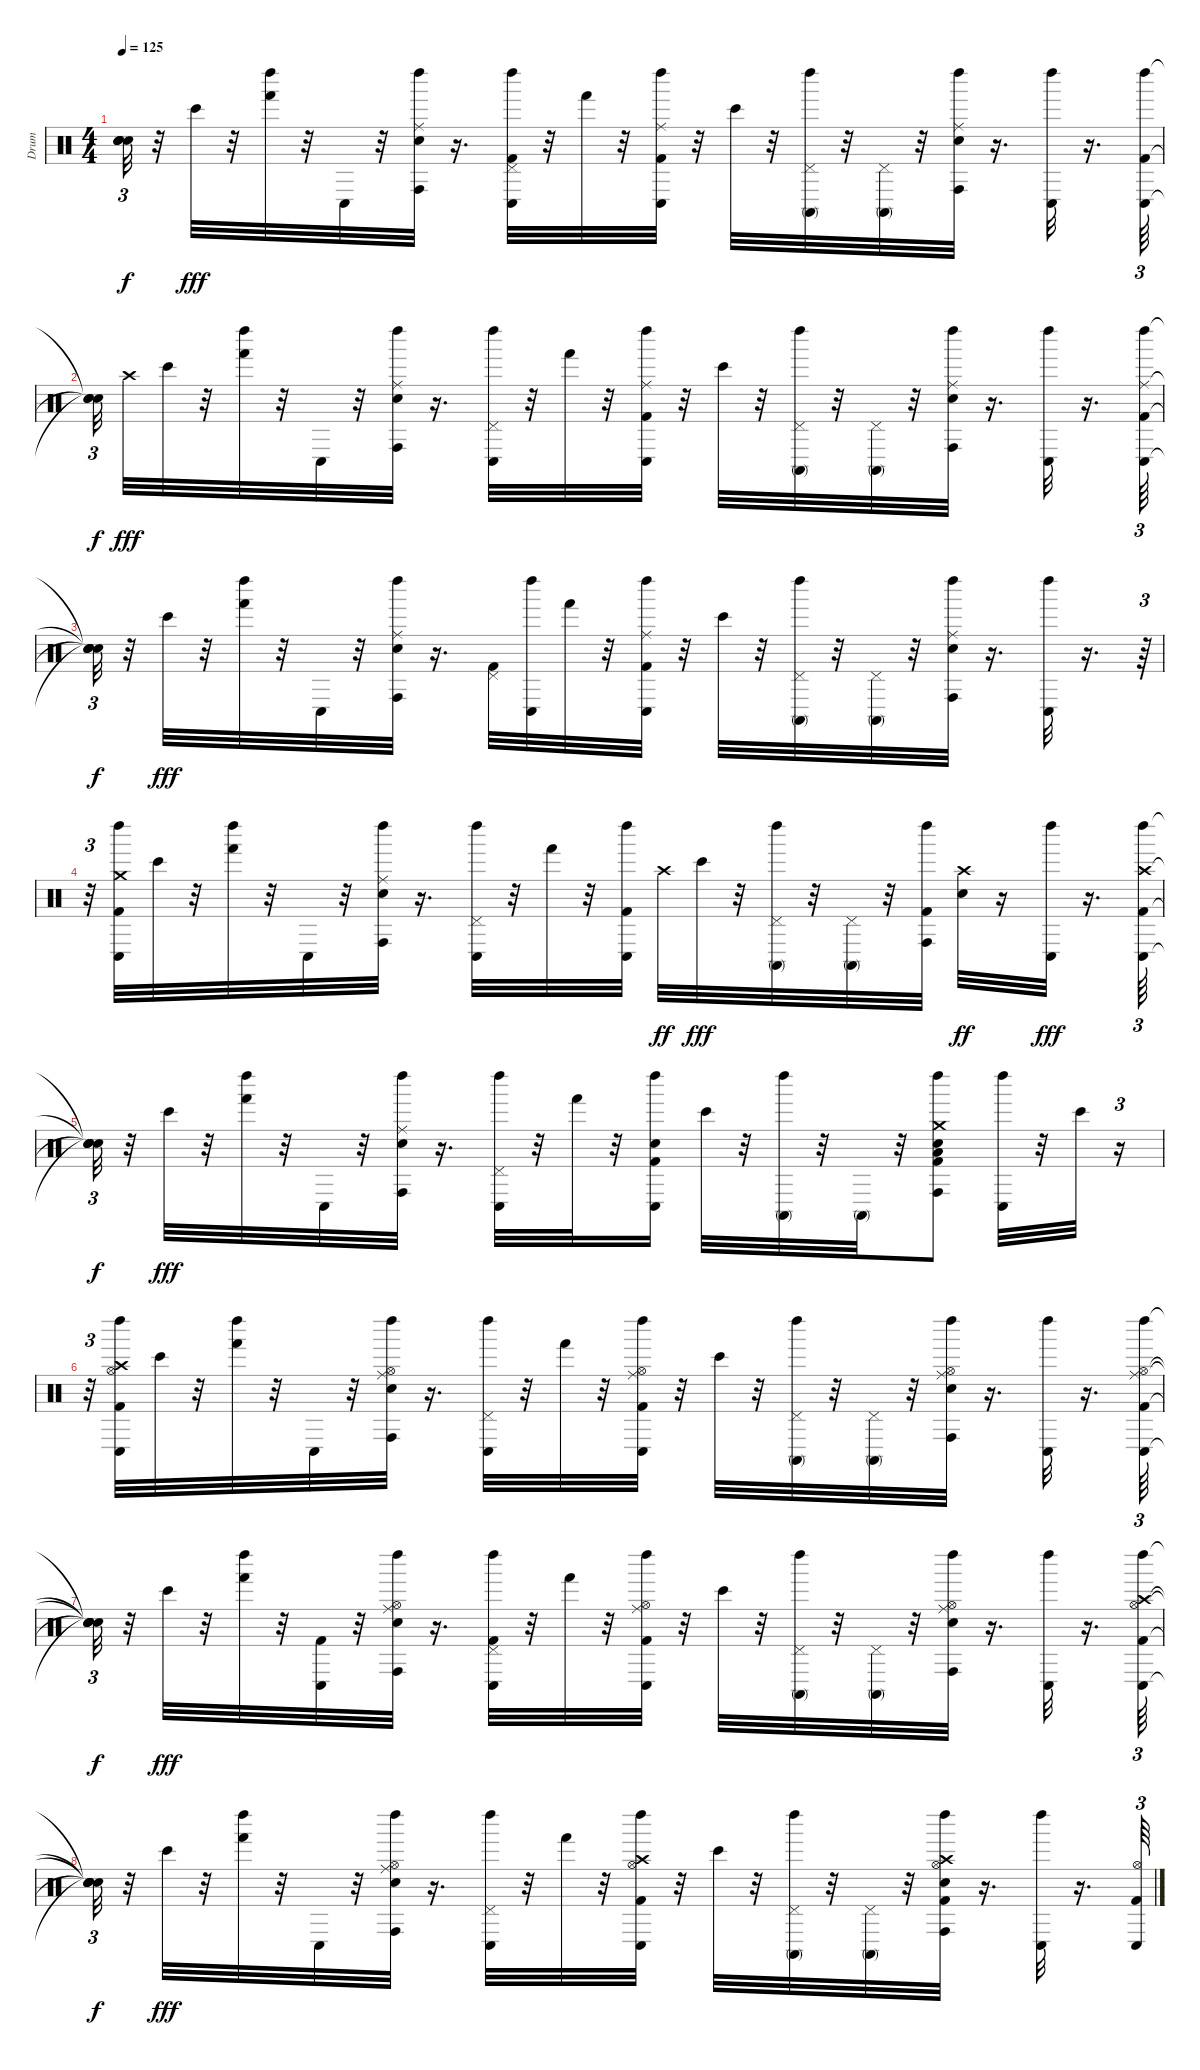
\track ("Drum" "Drum") {instrument percussion}
\staff {score}
\articulation defaults
\ts (4 4)
\tempo 125
\clef neutral
\ks c
("Snare (hit)"{t} "Snare (hit)"{t} "Snare (hit)"{t} "Snare (hit)"{t}).32{tu (3 2) dy f} r.32 "Bongo High (hit)".32{dy fff} r.32 ("Hand (hit)" "Left Maraca (hit)").32 r.32 "Conga low (hit)".32 r.32 ("Conga high (hit)" "Left Maraca (hit)" "Electric Snare (hit)" "Ride (middle)").32 r.16{d} ("Kick (hit) 2" "Pedal Hi-Hat (hit)" "Conga low (hit)" "Left Maraca (hit)").32 r.32 "Hand (hit)".32 r.32 ("Kick (hit) 2" "Conga low (hit)" "Left Maraca (hit)" "Ride (middle)").32 r.32 "Bongo High (hit)".32 r.32 ("Pedal Hi-Hat (hit)" "Conga high (mute)" "Left Maraca (hit)").32 r.32 ("Pedal Hi-Hat (hit)" "Conga high (mute)").32 r.32 ("Conga high (hit)" "Left Maraca (hit)" "Electric Snare (hit)" "Ride (middle)").32 r.16{d} ("Conga low (hit)" "Left Maraca (hit)").32 r.16{d} ("Kick (hit) 2" "Conga low (hit)" "Left Maraca (hit)").64{tu (3 2)} |
("Snare (hit)"{t} "Snare (hit)"{t} "Snare (hit)"{t}).32{tu (3 2) dy f beam splitsecondary} "Crash high (hit)".32{dy fff} "Bongo High (hit)".32 r.32 ("Hand (hit)" "Left Maraca (hit)").32 r.32 "Conga low (hit)".32 r.32 ("Conga high (hit)" "Left Maraca (hit)" "Electric Snare (hit)" "Ride (middle)").32 r.16{d} ("Pedal Hi-Hat (hit)" "Conga low (hit)" "Left Maraca (hit)").32 r.32 "Hand (hit)".32 r.32 ("Kick (hit) 2" "Conga low (hit)" "Left Maraca (hit)" "Ride (middle)").32 r.32 "Bongo High (hit)".32 r.32 ("Pedal Hi-Hat (hit)" "Conga high (mute)" "Left Maraca (hit)").32 r.32 ("Pedal Hi-Hat (hit)" "Conga high (mute)").32 r.32 ("Conga high (hit)" "Left Maraca (hit)" "Electric Snare (hit)" "Ride (middle)").32 r.16{d} ("Conga low (hit)" "Left Maraca (hit)").32 r.16{d} ("Kick (hit) 2" "Conga low (hit)" "Left Maraca (hit)" "Ride (middle)").64{tu (3 2)} |
("Snare (hit)"{t} "Snare (hit)"{t} "Snare (hit)"{t} "Snare (hit)"{t}).32{tu (3 2) dy f} r.32 "Bongo High (hit)".32{dy fff} r.32 ("Hand (hit)" "Left Maraca (hit)").32 r.32 "Conga low (hit)".32 r.32 ("Conga high (hit)" "Left Maraca (hit)" "Electric Snare (hit)" "Ride (middle)").32 r.16{d} ("Kick (hit) 2" "Pedal Hi-Hat (hit)").32 ("Conga low (hit)" "Left Maraca (hit)").32 "Hand (hit)".32 r.32 ("Kick (hit) 2" "Conga low (hit)" "Left Maraca (hit)" "Ride (middle)").32 r.32 "Bongo High (hit)".32 r.32 ("Pedal Hi-Hat (hit)" "Conga high (mute)" "Left Maraca (hit)").32 r.32 ("Pedal Hi-Hat (hit)" "Conga high (mute)").32 r.32 ("Conga high (hit)" "Left Maraca (hit)" "Electric Snare (hit)" "Ride (middle)").32 r.16{d} ("Conga low (hit)" "Left Maraca (hit)").32 r.16{d} r.64{tu (3 2)} |
r.32{tu (3 2)} ("Kick (hit) 2" "Conga low (hit)" "Left Maraca (hit)" "Crash medium (hit)").32 "Bongo High (hit)".32 r.32 ("Hand (hit)" "Left Maraca (hit)").32 r.32 "Conga low (hit)".32 r.32 ("Conga high (hit)" "Left Maraca (hit)" "Electric Snare (hit)" "Ride (middle)").32 r.16{d} ("Pedal Hi-Hat (hit)" "Conga low (hit)" "Left Maraca (hit)").32 r.32 "Hand (hit)".32 r.32 ("Kick (hit) 2" "Conga low (hit)" "Left Maraca (hit)").32 "Crash high (hit)".32{dy ff} "Bongo High (hit)".32{dy fff} r.32 ("Pedal Hi-Hat (hit)" "Conga high (mute)" "Left Maraca (hit)").32 r.32 ("Pedal Hi-Hat (hit)" "Conga high (mute)").32 r.32 ("Kick (hit) 2" "Conga high (hit)" "Left Maraca (hit)").32 ("Electric Snare (hit)" "Crash high (hit)").32{dy ff} r.16 ("Conga low (hit)" "Left Maraca (hit)").32{dy fff} r.16{d} ("Kick (hit) 2" "Conga low (hit)" "Left Maraca (hit)" "Crash high (hit)").64{tu (3 2)} |
("Snare (hit)"{t} "Snare (hit)"{t} "Snare (hit)"{t} "Snare (hit)"{t}).32{tu (3 2) dy f} r.32 "Bongo High (hit)".32{dy fff} r.32 ("Hand (hit)" "Left Maraca (hit)").32 r.32 "Conga low (hit)".32 r.32 ("Conga high (hit)" "Left Maraca (hit)" "Electric Snare (hit)" "Ride (middle)").32 r.16{d} ("Pedal Hi-Hat (hit)" "Conga low (hit)" "Left Maraca (hit)").32 r.32 "Hand (hit)".32 r.32 ("Kick (hit) 2" "Conga low (hit)" "Left Maraca (hit)" "Electric Snare (hit)").16 "Bongo High (hit)".32 r.32 ("Conga high (mute)" "Left Maraca (hit)").32 r.32 "Conga high (mute)".32 r.32 ("Kick (hit) 2" "Conga high (hit)" "Left Maraca (hit)" "Electric Snare (hit)" "Crash medium (hit)" "Low Tom (hit)").8 ("Conga low (hit)" "Left Maraca (hit)").32 r.32 "Bongo High (hit)".32 r.16{tu (3 2)} |
r.32{tu (3 2)} ("Kick (hit) 2" "Hi-Hat (open)" "Conga low (hit)" "Left Maraca (hit)" "Crash high (hit)").32 "Bongo High (hit)".32 r.32 ("Hand (hit)" "Left Maraca (hit)").32 r.32 "Conga low (hit)".32 r.32 ("Hi-Hat (open)" "Conga high (hit)" "Left Maraca (hit)" "Electric Snare (hit)" "Ride (middle)").32 r.16{d} ("Pedal Hi-Hat (hit)" "Conga low (hit)" "Left Maraca (hit)").32 r.32 "Hand (hit)".32 r.32 ("Kick (hit) 2" "Hi-Hat (open)" "Conga low (hit)" "Left Maraca (hit)" "Ride (middle)").32 r.32 "Bongo High (hit)".32 r.32 ("Pedal Hi-Hat (hit)" "Conga high (mute)" "Left Maraca (hit)").32 r.32 ("Pedal Hi-Hat (hit)" "Conga high (mute)").32 r.32 ("Hi-Hat (open)" "Conga high (hit)" "Left Maraca (hit)" "Electric Snare (hit)" "Ride (middle)").32 r.16{d} ("Conga low (hit)" "Left Maraca (hit)").32 r.16{d} ("Kick (hit) 2" "Hi-Hat (open)" "Conga low (hit)" "Left Maraca (hit)" "Ride (middle)").64{tu (3 2)} |
("Snare (hit)"{t} "Snare (hit)"{t} "Snare (hit)"{t} "Snare (hit)"{t} "Snare (hit)"{t}).32{tu (3 2) dy f} r.32 "Bongo High (hit)".32{dy fff} r.32 ("Hand (hit)" "Left Maraca (hit)").32 r.32 ("Kick (hit) 2" "Conga low (hit)").32 r.32 ("Hi-Hat (open)" "Conga high (hit)" "Left Maraca (hit)" "Electric Snare (hit)" "Ride (middle)").32 r.16{d} ("Kick (hit) 2" "Pedal Hi-Hat (hit)" "Conga low (hit)" "Left Maraca (hit)").32 r.32 "Hand (hit)".32 r.32 ("Kick (hit) 2" "Hi-Hat (open)" "Conga low (hit)" "Left Maraca (hit)" "Ride (middle)").32 r.32 "Bongo High (hit)".32 r.32 ("Pedal Hi-Hat (hit)" "Conga high (mute)" "Left Maraca (hit)").32 r.32 ("Pedal Hi-Hat (hit)" "Conga high (mute)").32 r.32 ("Hi-Hat (open)" "Conga high (hit)" "Left Maraca (hit)" "Electric Snare (hit)" "Ride (middle)").32 r.16{d} ("Conga low (hit)" "Left Maraca (hit)").32 r.16{d} ("Kick (hit) 2" "Hi-Hat (open)" "Conga low (hit)" "Left Maraca (hit)" "Crash high (hit)").64{tu (3 2)} |
("Snare (hit)"{t} "Snare (hit)"{t} "Snare (hit)"{t} "Snare (hit)"{t} "Snare (hit)"{t}).32{tu (3 2) dy f} r.32 "Bongo High (hit)".32{dy fff} r.32 ("Hand (hit)" "Left Maraca (hit)").32 r.32 "Conga low (hit)".32 r.32 ("Hi-Hat (open)" "Conga high (hit)" "Left Maraca (hit)" "Electric Snare (hit)" "Ride (middle)").32 r.16{d} ("Pedal Hi-Hat (hit)" "Conga low (hit)" "Left Maraca (hit)").32 r.32 "Hand (hit)".32 r.32 ("Kick (hit) 2" "Hi-Hat (open)" "Conga low (hit)" "Left Maraca (hit)" "Crash high (hit)").32 r.32 "Bongo High (hit)".32 r.32 ("Pedal Hi-Hat (hit)" "Conga high (mute)" "Left Maraca (hit)").32 r.32 ("Pedal Hi-Hat (hit)" "Conga high (mute)").32 r.32 ("Kick (hit) 2" "Hi-Hat (open)" "Conga high (hit)" "Left Maraca (hit)" "Electric Snare (hit)" "Crash high (hit)").32 r.16{d} ("Conga low (hit)" "Left Maraca (hit)").32 r.16{d} ("Kick (hit) 2" "Hi-Hat (open)" "Conga low (hit)").64{tu (3 2)}
